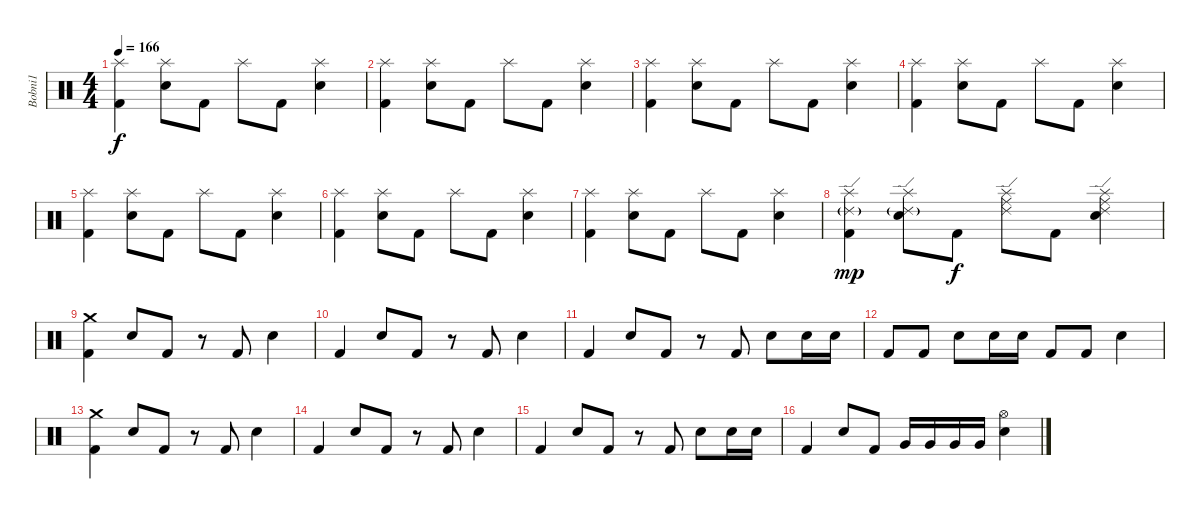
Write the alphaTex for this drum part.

\track ("Bobni1" "Bobni1") {instrument percussion}
\staff {score}
\articulation defaults
\ts (4 4)
\tempo 166
\clef neutral
\ks c
("Splash (hit)" "Kick (hit) 2").4{dy f} ("Splash (hit)" "Snare (hit) 2").8 "Kick (hit) 2".8 "Splash (hit)".8 "Kick (hit) 2".8 ("Splash (hit)" "Snare (hit) 2").4 |
("Splash (hit)" "Kick (hit) 2").4 ("Splash (hit)" "Snare (hit) 2").8 "Kick (hit) 2".8 "Splash (hit)".8 "Kick (hit) 2".8 ("Splash (hit)" "Snare (hit) 2").4 |
("Splash (hit)" "Kick (hit) 2").4 ("Splash (hit)" "Snare (hit) 2").8 "Kick (hit) 2".8 "Splash (hit)".8 "Kick (hit) 2".8 ("Splash (hit)" "Snare (hit) 2").4 |
("Splash (hit)" "Kick (hit) 2").4 ("Splash (hit)" "Snare (hit) 2").8 "Kick (hit) 2".8 "Splash (hit)".8 "Kick (hit) 2".8 ("Splash (hit)" "Snare (hit) 2").4 |
("Splash (hit)" "Kick (hit) 2").4 ("Splash (hit)" "Snare (hit) 2").8 "Kick (hit) 2".8 "Splash (hit)".8 "Kick (hit) 2".8 ("Splash (hit)" "Snare (hit) 2").4 |
("Splash (hit)" "Kick (hit) 2").4 ("Splash (hit)" "Snare (hit) 2").8 "Kick (hit) 2".8 "Splash (hit)".8 "Kick (hit) 2".8 ("Splash (hit)" "Snare (hit) 2").4 |
("Splash (hit)" "Kick (hit) 2").4 ("Splash (hit)" "Snare (hit) 2").8 "Kick (hit) 2".8 "Splash (hit)".8 "Kick (hit) 2".8 ("Splash (hit)" "Snare (hit) 2").4 |
("Splash (hit)" "Ride (edge) 2"{g} "Kick (hit) 2").4{dy mp} ("Splash (hit)" "Ride (edge) 2"{g} "Snare (hit) 2").8 "Kick (hit) 2".8{dy f} ("Splash (hit)" "Ride (edge) 2" "Ride (middle)").8 "Kick (hit) 2".8 ("Splash (hit)" "Ride (edge) 2" "Ride (middle)" "Snare (hit) 2").4 |
("Crash medium (hit)" "Kick (hit) 2").4 "Snare (hit) 2".8 "Kick (hit) 2".8 r.8 "Kick (hit) 2".8 "Snare (hit) 2".4 |
"Kick (hit) 2".4 "Snare (hit) 2".8 "Kick (hit) 2".8 r.8 "Kick (hit) 2".8 "Snare (hit) 2".4 |
"Kick (hit) 2".4 "Snare (hit) 2".8 "Kick (hit) 2".8 r.8 "Kick (hit) 2".8 "Snare (hit) 2".8 "Snare (hit) 2".16 "Snare (hit) 2".16 |
"Kick (hit) 2".8 "Kick (hit) 2".8 "Snare (hit) 2".8 "Snare (hit) 2".16 "Snare (hit) 2".16 "Kick (hit) 2".8 "Kick (hit) 2".8 "Snare (hit) 2".4 |
("Crash medium (hit)" "Kick (hit) 2").4 "Snare (hit) 2".8 "Kick (hit) 2".8 r.8 "Kick (hit) 2".8 "Snare (hit) 2".4 |
"Kick (hit) 2".4 "Snare (hit) 2".8 "Kick (hit) 2".8 r.8 "Kick (hit) 2".8 "Snare (hit) 2".4 |
"Kick (hit) 2".4 "Snare (hit) 2".8 "Kick (hit) 2".8 r.8 "Kick (hit) 2".8 "Snare (hit) 2".8 "Snare (hit) 2".16 "Snare (hit) 2".16 |
"Kick (hit) 2".4 "Snare (hit) 2".8 "Kick (hit) 2".8 "Very Low Tom (hit)".16 "Very Low Tom (hit)".16 "Very Low Tom (hit)".16 "Very Low Tom (hit)".16 ("Hi-Hat (open)" "Snare (hit) 2").4
